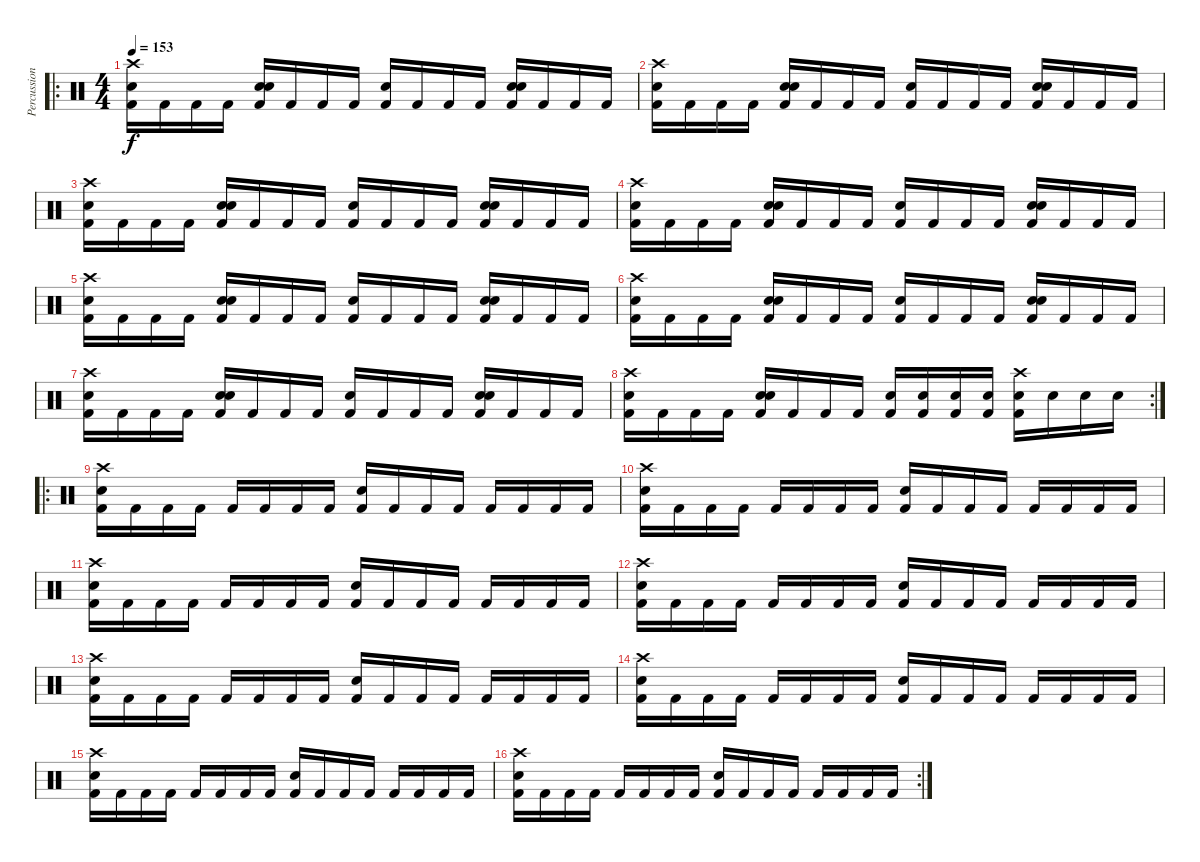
\track ("Percussion" "Percussion") {instrument percussion}
\staff {score}
\articulation defaults
\ro
\ts (4 4)
\tempo 153
\clef neutral
\ks c
("Crash high (hit)" "Snare (hit) 2" "Kick (hit) 2").16{dy f} "Kick (hit) 2".16 "Kick (hit) 2".16 "Kick (hit) 2".16 ("Hand Clap (hit)" "Snare (hit) 2" "Kick (hit) 2").16 "Kick (hit) 2".16 "Kick (hit) 2".16 "Kick (hit) 2".16 ("Snare (hit) 2" "Kick (hit) 2").16 "Kick (hit) 2".16 "Kick (hit) 2".16 "Kick (hit) 2".16 ("Hand Clap (hit)" "Snare (hit) 2" "Kick (hit) 2").16 "Kick (hit) 2".16 "Kick (hit) 2".16 "Kick (hit) 2".16 |
("Crash high (hit)" "Snare (hit) 2" "Kick (hit) 2").16 "Kick (hit) 2".16 "Kick (hit) 2".16 "Kick (hit) 2".16 ("Hand Clap (hit)" "Snare (hit) 2" "Kick (hit) 2").16 "Kick (hit) 2".16 "Kick (hit) 2".16 "Kick (hit) 2".16 ("Snare (hit) 2" "Kick (hit) 2").16 "Kick (hit) 2".16 "Kick (hit) 2".16 "Kick (hit) 2".16 ("Hand Clap (hit)" "Snare (hit) 2" "Kick (hit) 2").16 "Kick (hit) 2".16 "Kick (hit) 2".16 "Kick (hit) 2".16 |
("Crash high (hit)" "Snare (hit) 2" "Kick (hit) 2").16 "Kick (hit) 2".16 "Kick (hit) 2".16 "Kick (hit) 2".16 ("Hand Clap (hit)" "Snare (hit) 2" "Kick (hit) 2").16 "Kick (hit) 2".16 "Kick (hit) 2".16 "Kick (hit) 2".16 ("Snare (hit) 2" "Kick (hit) 2").16 "Kick (hit) 2".16 "Kick (hit) 2".16 "Kick (hit) 2".16 ("Hand Clap (hit)" "Snare (hit) 2" "Kick (hit) 2").16 "Kick (hit) 2".16 "Kick (hit) 2".16 "Kick (hit) 2".16 |
("Crash high (hit)" "Snare (hit) 2" "Kick (hit) 2").16 "Kick (hit) 2".16 "Kick (hit) 2".16 "Kick (hit) 2".16 ("Hand Clap (hit)" "Snare (hit) 2" "Kick (hit) 2").16 "Kick (hit) 2".16 "Kick (hit) 2".16 "Kick (hit) 2".16 ("Snare (hit) 2" "Kick (hit) 2").16 "Kick (hit) 2".16 "Kick (hit) 2".16 "Kick (hit) 2".16 ("Hand Clap (hit)" "Snare (hit) 2" "Kick (hit) 2").16 "Kick (hit) 2".16 "Kick (hit) 2".16 "Kick (hit) 2".16 |
("Crash high (hit)" "Snare (hit) 2" "Kick (hit) 2").16 "Kick (hit) 2".16 "Kick (hit) 2".16 "Kick (hit) 2".16 ("Hand Clap (hit)" "Snare (hit) 2" "Kick (hit) 2").16 "Kick (hit) 2".16 "Kick (hit) 2".16 "Kick (hit) 2".16 ("Snare (hit) 2" "Kick (hit) 2").16 "Kick (hit) 2".16 "Kick (hit) 2".16 "Kick (hit) 2".16 ("Hand Clap (hit)" "Snare (hit) 2" "Kick (hit) 2").16 "Kick (hit) 2".16 "Kick (hit) 2".16 "Kick (hit) 2".16 |
("Crash high (hit)" "Snare (hit) 2" "Kick (hit) 2").16 "Kick (hit) 2".16 "Kick (hit) 2".16 "Kick (hit) 2".16 ("Hand Clap (hit)" "Snare (hit) 2" "Kick (hit) 2").16 "Kick (hit) 2".16 "Kick (hit) 2".16 "Kick (hit) 2".16 ("Snare (hit) 2" "Kick (hit) 2").16 "Kick (hit) 2".16 "Kick (hit) 2".16 "Kick (hit) 2".16 ("Hand Clap (hit)" "Snare (hit) 2" "Kick (hit) 2").16 "Kick (hit) 2".16 "Kick (hit) 2".16 "Kick (hit) 2".16 |
("Crash high (hit)" "Snare (hit) 2" "Kick (hit) 2").16 "Kick (hit) 2".16 "Kick (hit) 2".16 "Kick (hit) 2".16 ("Hand Clap (hit)" "Snare (hit) 2" "Kick (hit) 2").16 "Kick (hit) 2".16 "Kick (hit) 2".16 "Kick (hit) 2".16 ("Snare (hit) 2" "Kick (hit) 2").16 "Kick (hit) 2".16 "Kick (hit) 2".16 "Kick (hit) 2".16 ("Hand Clap (hit)" "Snare (hit) 2" "Kick (hit) 2").16 "Kick (hit) 2".16 "Kick (hit) 2".16 "Kick (hit) 2".16 |
\rc 2
("Crash high (hit)" "Snare (hit) 2" "Kick (hit) 2").16 "Kick (hit) 2".16 "Kick (hit) 2".16 "Kick (hit) 2".16 ("Hand Clap (hit)" "Snare (hit) 2" "Kick (hit) 2").16 "Kick (hit) 2".16 "Kick (hit) 2".16 "Kick (hit) 2".16 ("Snare (hit) 2" "Kick (hit) 2").16 ("Snare (hit) 2" "Kick (hit) 2").16 ("Snare (hit) 2" "Kick (hit) 2").16 ("Snare (hit) 2" "Kick (hit) 2").16 ("Crash high (hit)" "Snare (hit) 2" "Kick (hit) 2").16 "Snare (hit) 2".16 "Snare (hit) 2".16 "Snare (hit) 2".16 |
\ro
("Crash high (hit)" "Snare (hit) 2" "Kick (hit) 2").16 "Kick (hit) 2".16 "Kick (hit) 2".16 "Kick (hit) 2".16 "Kick (hit) 2".16 "Kick (hit) 2".16 "Kick (hit) 2".16 "Kick (hit) 2".16 ("Snare (hit) 2" "Kick (hit) 2").16 "Kick (hit) 2".16 "Kick (hit) 2".16 "Kick (hit) 2".16 "Kick (hit) 2".16 "Kick (hit) 2".16 "Kick (hit) 2".16 "Kick (hit) 2".16 |
("Crash high (hit)" "Snare (hit) 2" "Kick (hit) 2").16 "Kick (hit) 2".16 "Kick (hit) 2".16 "Kick (hit) 2".16 "Kick (hit) 2".16 "Kick (hit) 2".16 "Kick (hit) 2".16 "Kick (hit) 2".16 ("Snare (hit) 2" "Kick (hit) 2").16 "Kick (hit) 2".16 "Kick (hit) 2".16 "Kick (hit) 2".16 "Kick (hit) 2".16 "Kick (hit) 2".16 "Kick (hit) 2".16 "Kick (hit) 2".16 |
("Crash high (hit)" "Snare (hit) 2" "Kick (hit) 2").16 "Kick (hit) 2".16 "Kick (hit) 2".16 "Kick (hit) 2".16 "Kick (hit) 2".16 "Kick (hit) 2".16 "Kick (hit) 2".16 "Kick (hit) 2".16 ("Snare (hit) 2" "Kick (hit) 2").16 "Kick (hit) 2".16 "Kick (hit) 2".16 "Kick (hit) 2".16 "Kick (hit) 2".16 "Kick (hit) 2".16 "Kick (hit) 2".16 "Kick (hit) 2".16 |
("Crash high (hit)" "Snare (hit) 2" "Kick (hit) 2").16 "Kick (hit) 2".16 "Kick (hit) 2".16 "Kick (hit) 2".16 "Kick (hit) 2".16 "Kick (hit) 2".16 "Kick (hit) 2".16 "Kick (hit) 2".16 ("Snare (hit) 2" "Kick (hit) 2").16 "Kick (hit) 2".16 "Kick (hit) 2".16 "Kick (hit) 2".16 "Kick (hit) 2".16 "Kick (hit) 2".16 "Kick (hit) 2".16 "Kick (hit) 2".16 |
("Crash high (hit)" "Snare (hit) 2" "Kick (hit) 2").16 "Kick (hit) 2".16 "Kick (hit) 2".16 "Kick (hit) 2".16 "Kick (hit) 2".16 "Kick (hit) 2".16 "Kick (hit) 2".16 "Kick (hit) 2".16 ("Snare (hit) 2" "Kick (hit) 2").16 "Kick (hit) 2".16 "Kick (hit) 2".16 "Kick (hit) 2".16 "Kick (hit) 2".16 "Kick (hit) 2".16 "Kick (hit) 2".16 "Kick (hit) 2".16 |
("Crash high (hit)" "Snare (hit) 2" "Kick (hit) 2").16 "Kick (hit) 2".16 "Kick (hit) 2".16 "Kick (hit) 2".16 "Kick (hit) 2".16 "Kick (hit) 2".16 "Kick (hit) 2".16 "Kick (hit) 2".16 ("Snare (hit) 2" "Kick (hit) 2").16 "Kick (hit) 2".16 "Kick (hit) 2".16 "Kick (hit) 2".16 "Kick (hit) 2".16 "Kick (hit) 2".16 "Kick (hit) 2".16 "Kick (hit) 2".16 |
("Crash high (hit)" "Snare (hit) 2" "Kick (hit) 2").16 "Kick (hit) 2".16 "Kick (hit) 2".16 "Kick (hit) 2".16 "Kick (hit) 2".16 "Kick (hit) 2".16 "Kick (hit) 2".16 "Kick (hit) 2".16 ("Snare (hit) 2" "Kick (hit) 2").16 "Kick (hit) 2".16 "Kick (hit) 2".16 "Kick (hit) 2".16 "Kick (hit) 2".16 "Kick (hit) 2".16 "Kick (hit) 2".16 "Kick (hit) 2".16 |
\rc 2
("Crash high (hit)" "Snare (hit) 2" "Kick (hit) 2").16 "Kick (hit) 2".16 "Kick (hit) 2".16 "Kick (hit) 2".16 "Kick (hit) 2".16 "Kick (hit) 2".16 "Kick (hit) 2".16 "Kick (hit) 2".16 ("Snare (hit) 2" "Kick (hit) 2").16 "Kick (hit) 2".16 "Kick (hit) 2".16 "Kick (hit) 2".16 "Kick (hit) 2".16 "Kick (hit) 2".16 "Kick (hit) 2".16 "Kick (hit) 2".16
